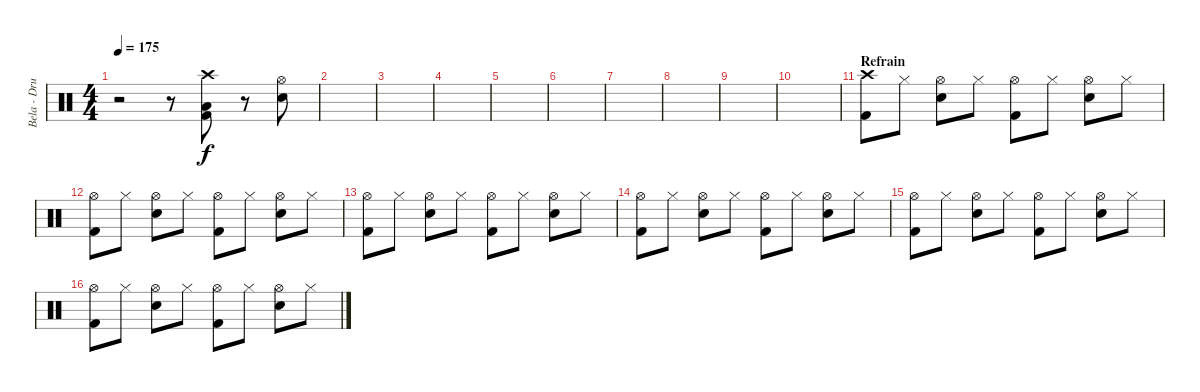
\track ("Bela - Drums" "Bela - Dru") {instrument percussion}
\staff {score}
\articulation defaults
\ts (4 4)
\tempo 175
\clef neutral
\ks c
r.2{dy f} r.8 ("Crash high (hit)" "Kick (hit) 2" "Low Tom (hit)").8 r.8 ("Hi-Hat (open)" "Electric Snare (hit)").8 |
|
|
|
|
|
|
|
|
|
\section ("" "Refrain")
("Crash high (hit)" "Kick (hit) 2").8 "Hi-Hat (closed)".8 ("Hi-Hat (open)" "Electric Snare (hit)").8 "Hi-Hat (closed)".8 ("Hi-Hat (open)" "Kick (hit) 2").8 "Hi-Hat (closed)".8 ("Hi-Hat (open)" "Electric Snare (hit)").8 "Hi-Hat (closed)".8 |
("Hi-Hat (open)" "Kick (hit) 2").8 "Hi-Hat (closed)".8 ("Hi-Hat (open)" "Electric Snare (hit)").8 "Hi-Hat (closed)".8 ("Hi-Hat (open)" "Kick (hit) 2").8 "Hi-Hat (closed)".8 ("Hi-Hat (open)" "Electric Snare (hit)").8 "Hi-Hat (closed)".8 |
("Hi-Hat (open)" "Kick (hit) 2").8 "Hi-Hat (closed)".8 ("Hi-Hat (open)" "Electric Snare (hit)").8 "Hi-Hat (closed)".8 ("Hi-Hat (open)" "Kick (hit) 2").8 "Hi-Hat (closed)".8 ("Hi-Hat (open)" "Electric Snare (hit)").8 "Hi-Hat (closed)".8 |
("Hi-Hat (open)" "Kick (hit) 2").8 "Hi-Hat (closed)".8 ("Hi-Hat (open)" "Electric Snare (hit)").8 "Hi-Hat (closed)".8 ("Hi-Hat (open)" "Kick (hit) 2").8 "Hi-Hat (closed)".8 ("Hi-Hat (open)" "Electric Snare (hit)").8 "Hi-Hat (closed)".8 |
("Hi-Hat (open)" "Kick (hit) 2").8 "Hi-Hat (closed)".8 ("Hi-Hat (open)" "Electric Snare (hit)").8 "Hi-Hat (closed)".8 ("Hi-Hat (open)" "Kick (hit) 2").8 "Hi-Hat (closed)".8 ("Hi-Hat (open)" "Electric Snare (hit)").8 "Hi-Hat (closed)".8 |
("Hi-Hat (open)" "Kick (hit) 2").8 "Hi-Hat (closed)".8 ("Hi-Hat (open)" "Electric Snare (hit)").8 "Hi-Hat (closed)".8 ("Hi-Hat (open)" "Kick (hit) 2").8 "Hi-Hat (closed)".8 ("Hi-Hat (open)" "Electric Snare (hit)").8 "Hi-Hat (closed)".8
